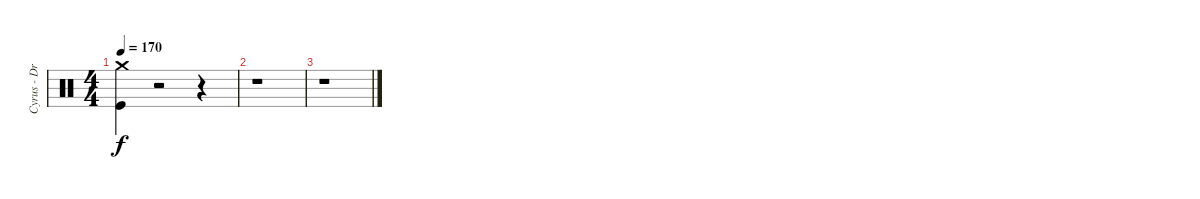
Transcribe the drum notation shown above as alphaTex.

\track ("Cyrus - Drums" "Cyrus - Dr") {instrument percussion}
\staff {score}
\articulation defaults
\ts (4 4)
\tempo 170
\clef neutral
\ks c
("Crash medium (hit)" "Kick (hit)").4{dy f} r.2 r.4 |
r.1 |
r.1
